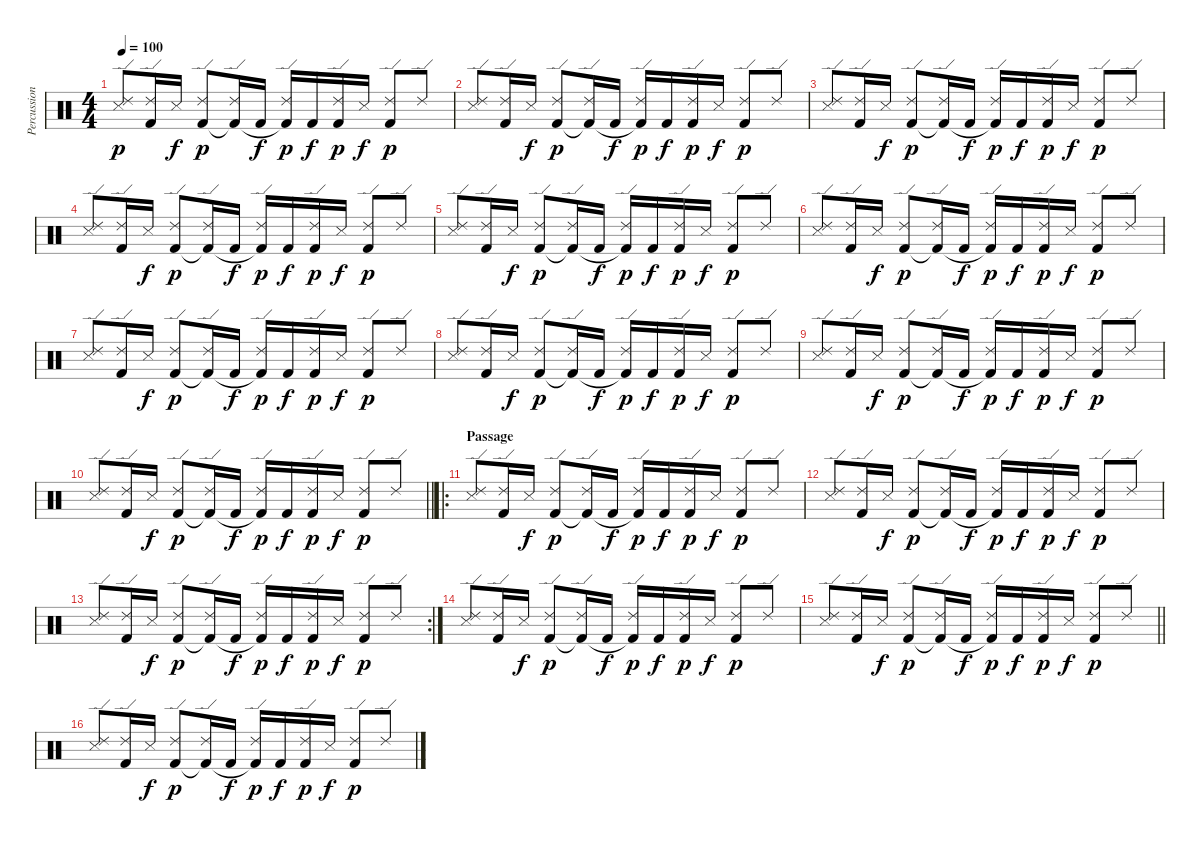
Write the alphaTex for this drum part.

\track ("Percussion" "Percussion") {instrument percussion}
\staff {score}
\articulation defaults
\ts (4 4)
\tempo 100
\clef neutral
\ks c
("Ride (edge) 2" "Snare (side stick) 3").8{dy p} ("Ride (edge) 2" "Kick (hit) 2").16 "Snare (side stick) 3".16{dy f} ("Ride (edge) 2" "Kick (hit) 2").8{dy p} ("Ride (edge) 2" "Kick (hit) 2"{t}).16 "Kick (hit) 2".16{dy f} ("Ride (edge) 2" "Kick (hit) 2"{t}).16{dy p} "Kick (hit) 2".16{dy f} ("Ride (edge) 2" "Kick (hit) 2").16{dy p} "Snare (side stick) 3".16{dy f} ("Ride (edge) 2" "Kick (hit) 2").8{dy p} "Ride (edge) 2".8 |
("Ride (edge) 2" "Snare (side stick) 3").8 ("Ride (edge) 2" "Kick (hit) 2").16 "Snare (side stick) 3".16{dy f} ("Ride (edge) 2" "Kick (hit) 2").8{dy p} ("Ride (edge) 2" "Kick (hit) 2"{t}).16 "Kick (hit) 2".16{dy f} ("Ride (edge) 2" "Kick (hit) 2"{t}).16{dy p} "Kick (hit) 2".16{dy f} ("Ride (edge) 2" "Kick (hit) 2").16{dy p} "Snare (side stick) 3".16{dy f} ("Ride (edge) 2" "Kick (hit) 2").8{dy p} "Ride (edge) 2".8 |
("Ride (edge) 2" "Snare (side stick) 3").8 ("Ride (edge) 2" "Kick (hit) 2").16 "Snare (side stick) 3".16{dy f} ("Ride (edge) 2" "Kick (hit) 2").8{dy p} ("Ride (edge) 2" "Kick (hit) 2"{t}).16 "Kick (hit) 2".16{dy f} ("Ride (edge) 2" "Kick (hit) 2"{t}).16{dy p} "Kick (hit) 2".16{dy f} ("Ride (edge) 2" "Kick (hit) 2").16{dy p} "Snare (side stick) 3".16{dy f} ("Ride (edge) 2" "Kick (hit) 2").8{dy p} "Ride (edge) 2".8 |
("Ride (edge) 2" "Snare (side stick) 3").8 ("Ride (edge) 2" "Kick (hit) 2").16 "Snare (side stick) 3".16{dy f} ("Ride (edge) 2" "Kick (hit) 2").8{dy p} ("Ride (edge) 2" "Kick (hit) 2"{t}).16 "Kick (hit) 2".16{dy f} ("Ride (edge) 2" "Kick (hit) 2"{t}).16{dy p} "Kick (hit) 2".16{dy f} ("Ride (edge) 2" "Kick (hit) 2").16{dy p} "Snare (side stick) 3".16{dy f} ("Ride (edge) 2" "Kick (hit) 2").8{dy p} "Ride (edge) 2".8 |
("Ride (edge) 2" "Snare (side stick) 3").8 ("Ride (edge) 2" "Kick (hit) 2").16 "Snare (side stick) 3".16{dy f} ("Ride (edge) 2" "Kick (hit) 2").8{dy p} ("Ride (edge) 2" "Kick (hit) 2"{t}).16 "Kick (hit) 2".16{dy f} ("Ride (edge) 2" "Kick (hit) 2"{t}).16{dy p} "Kick (hit) 2".16{dy f} ("Ride (edge) 2" "Kick (hit) 2").16{dy p} "Snare (side stick) 3".16{dy f} ("Ride (edge) 2" "Kick (hit) 2").8{dy p} "Ride (edge) 2".8 |
("Ride (edge) 2" "Snare (side stick) 3").8 ("Ride (edge) 2" "Kick (hit) 2").16 "Snare (side stick) 3".16{dy f} ("Ride (edge) 2" "Kick (hit) 2").8{dy p} ("Ride (edge) 2" "Kick (hit) 2"{t}).16 "Kick (hit) 2".16{dy f} ("Ride (edge) 2" "Kick (hit) 2"{t}).16{dy p} "Kick (hit) 2".16{dy f} ("Ride (edge) 2" "Kick (hit) 2").16{dy p} "Snare (side stick) 3".16{dy f} ("Ride (edge) 2" "Kick (hit) 2").8{dy p} "Ride (edge) 2".8 |
("Ride (edge) 2" "Snare (side stick) 3").8 ("Ride (edge) 2" "Kick (hit) 2").16 "Snare (side stick) 3".16{dy f} ("Ride (edge) 2" "Kick (hit) 2").8{dy p} ("Ride (edge) 2" "Kick (hit) 2"{t}).16 "Kick (hit) 2".16{dy f} ("Ride (edge) 2" "Kick (hit) 2"{t}).16{dy p} "Kick (hit) 2".16{dy f} ("Ride (edge) 2" "Kick (hit) 2").16{dy p} "Snare (side stick) 3".16{dy f} ("Ride (edge) 2" "Kick (hit) 2").8{dy p} "Ride (edge) 2".8 |
("Ride (edge) 2" "Snare (side stick) 3").8 ("Ride (edge) 2" "Kick (hit) 2").16 "Snare (side stick) 3".16{dy f} ("Ride (edge) 2" "Kick (hit) 2").8{dy p} ("Ride (edge) 2" "Kick (hit) 2"{t}).16 "Kick (hit) 2".16{dy f} ("Ride (edge) 2" "Kick (hit) 2"{t}).16{dy p} "Kick (hit) 2".16{dy f} ("Ride (edge) 2" "Kick (hit) 2").16{dy p} "Snare (side stick) 3".16{dy f} ("Ride (edge) 2" "Kick (hit) 2").8{dy p} "Ride (edge) 2".8 |
("Ride (edge) 2" "Snare (side stick) 3").8 ("Ride (edge) 2" "Kick (hit) 2").16 "Snare (side stick) 3".16{dy f} ("Ride (edge) 2" "Kick (hit) 2").8{dy p} ("Ride (edge) 2" "Kick (hit) 2"{t}).16 "Kick (hit) 2".16{dy f} ("Ride (edge) 2" "Kick (hit) 2"{t}).16{dy p} "Kick (hit) 2".16{dy f} ("Ride (edge) 2" "Kick (hit) 2").16{dy p} "Snare (side stick) 3".16{dy f} ("Ride (edge) 2" "Kick (hit) 2").8{dy p} "Ride (edge) 2".8 |
\barLineRight lightlight
("Ride (edge) 2" "Snare (side stick) 3").8 ("Ride (edge) 2" "Kick (hit) 2").16 "Snare (side stick) 3".16{dy f} ("Ride (edge) 2" "Kick (hit) 2").8{dy p} ("Ride (edge) 2" "Kick (hit) 2"{t}).16 "Kick (hit) 2".16{dy f} ("Ride (edge) 2" "Kick (hit) 2"{t}).16{dy p} "Kick (hit) 2".16{dy f} ("Ride (edge) 2" "Kick (hit) 2").16{dy p} "Snare (side stick) 3".16{dy f} ("Ride (edge) 2" "Kick (hit) 2").8{dy p} "Ride (edge) 2".8 |
\ro
\section ("" "Passage")
("Ride (edge) 2" "Snare (side stick) 3").8 ("Ride (edge) 2" "Kick (hit) 2").16 "Snare (side stick) 3".16{dy f} ("Ride (edge) 2" "Kick (hit) 2").8{dy p} ("Ride (edge) 2" "Kick (hit) 2"{t}).16 "Kick (hit) 2".16{dy f} ("Ride (edge) 2" "Kick (hit) 2"{t}).16{dy p} "Kick (hit) 2".16{dy f} ("Ride (edge) 2" "Kick (hit) 2").16{dy p} "Snare (side stick) 3".16{dy f} ("Ride (edge) 2" "Kick (hit) 2").8{dy p} "Ride (edge) 2".8 |
("Ride (edge) 2" "Snare (side stick) 3").8 ("Ride (edge) 2" "Kick (hit) 2").16 "Snare (side stick) 3".16{dy f} ("Ride (edge) 2" "Kick (hit) 2").8{dy p} ("Ride (edge) 2" "Kick (hit) 2"{t}).16 "Kick (hit) 2".16{dy f} ("Ride (edge) 2" "Kick (hit) 2"{t}).16{dy p} "Kick (hit) 2".16{dy f} ("Ride (edge) 2" "Kick (hit) 2").16{dy p} "Snare (side stick) 3".16{dy f} ("Ride (edge) 2" "Kick (hit) 2").8{dy p} "Ride (edge) 2".8 |
\rc 2
("Ride (edge) 2" "Snare (side stick) 3").8 ("Ride (edge) 2" "Kick (hit) 2").16 "Snare (side stick) 3".16{dy f} ("Ride (edge) 2" "Kick (hit) 2").8{dy p} ("Ride (edge) 2" "Kick (hit) 2"{t}).16 "Kick (hit) 2".16{dy f} ("Ride (edge) 2" "Kick (hit) 2"{t}).16{dy p} "Kick (hit) 2".16{dy f} ("Ride (edge) 2" "Kick (hit) 2").16{dy p} "Snare (side stick) 3".16{dy f} ("Ride (edge) 2" "Kick (hit) 2").8{dy p} "Ride (edge) 2".8 |
("Ride (edge) 2" "Snare (side stick) 3").8 ("Ride (edge) 2" "Kick (hit) 2").16 "Snare (side stick) 3".16{dy f} ("Ride (edge) 2" "Kick (hit) 2").8{dy p} ("Ride (edge) 2" "Kick (hit) 2"{t}).16 "Kick (hit) 2".16{dy f} ("Ride (edge) 2" "Kick (hit) 2"{t}).16{dy p} "Kick (hit) 2".16{dy f} ("Ride (edge) 2" "Kick (hit) 2").16{dy p} "Snare (side stick) 3".16{dy f} ("Ride (edge) 2" "Kick (hit) 2").8{dy p} "Ride (edge) 2".8 |
\barLineRight lightlight
("Ride (edge) 2" "Snare (side stick) 3").8 ("Ride (edge) 2" "Kick (hit) 2").16 "Snare (side stick) 3".16{dy f} ("Ride (edge) 2" "Kick (hit) 2").8{dy p} ("Ride (edge) 2" "Kick (hit) 2"{t}).16 "Kick (hit) 2".16{dy f} ("Ride (edge) 2" "Kick (hit) 2"{t}).16{dy p} "Kick (hit) 2".16{dy f} ("Ride (edge) 2" "Kick (hit) 2").16{dy p} "Snare (side stick) 3".16{dy f} ("Ride (edge) 2" "Kick (hit) 2").8{dy p} "Ride (edge) 2".8 |
("Ride (edge) 2" "Snare (side stick) 3").8 ("Ride (edge) 2" "Kick (hit) 2").16 "Snare (side stick) 3".16{dy f} ("Ride (edge) 2" "Kick (hit) 2").8{dy p} ("Ride (edge) 2" "Kick (hit) 2"{t}).16 "Kick (hit) 2".16{dy f} ("Ride (edge) 2" "Kick (hit) 2"{t}).16{dy p} "Kick (hit) 2".16{dy f} ("Ride (edge) 2" "Kick (hit) 2").16{dy p} "Snare (side stick) 3".16{dy f} ("Ride (edge) 2" "Kick (hit) 2").8{dy p} "Ride (edge) 2".8
